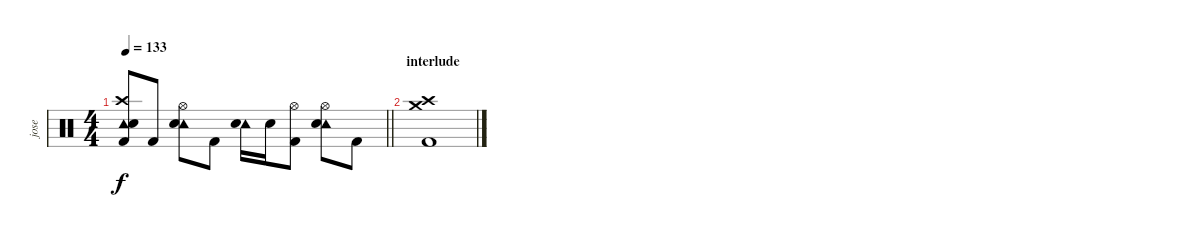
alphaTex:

\track ("jose" "jose") {instrument percussion}
\staff {score}
\articulation defaults
\ts (4 4)
\tempo 133
\clef neutral
\barLineRight lightlight
\ks c
("Tambourine (hit)" "Crash high (hit)" "Snare (hit) 2" "Kick (hit) 2").8{dy f} "Kick (hit) 2".8 ("Tambourine (hit)" "Hi-Hat (open)" "Snare (hit) 2").8 "Kick (hit) 2".8 ("Tambourine (hit)" "Snare (hit) 2").16 "Snare (hit) 2".16 ("Hi-Hat (open)" "Kick (hit) 2").8 ("Tambourine (hit)" "Hi-Hat (open)" "Snare (hit) 2").8 "Kick (hit) 2".8 |
\section ("" "interlude")
("Crash medium (hit)" "Crash high (hit)" "Kick (hit) 2").1
